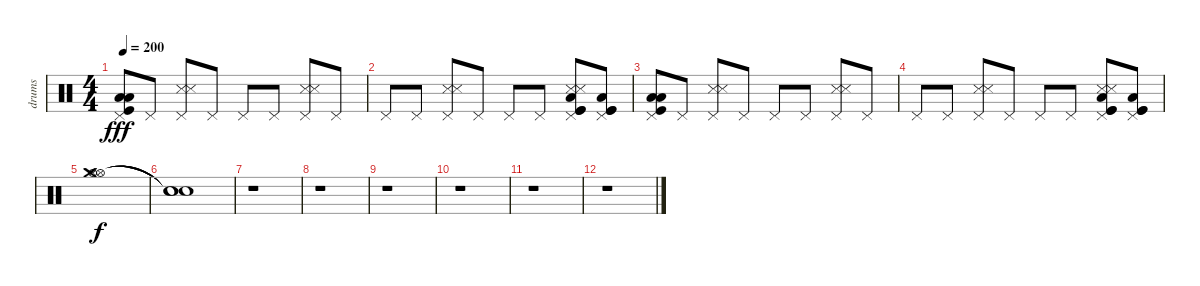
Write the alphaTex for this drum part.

\track ("drums" "drums") {instrument percussion}
\staff {score}
\articulation defaults
\ts (4 4)
\tempo 200
\clef neutral
\ks c
("Pedal Hi-Hat (hit)" "Low Floor Tom (hit)" "Low Floor Tom (hit)" "Kick (hit)").8{dy fff} "Pedal Hi-Hat (hit)".8 ("Pedal Hi-Hat (hit)" "Snare (side stick) 3" "Snare (side stick) 3").8 "Pedal Hi-Hat (hit)".8 "Pedal Hi-Hat (hit)".8 "Pedal Hi-Hat (hit)".8 ("Pedal Hi-Hat (hit)" "Snare (side stick) 3" "Snare (side stick) 3").8 "Pedal Hi-Hat (hit)".8 |
"Pedal Hi-Hat (hit)".8 "Pedal Hi-Hat (hit)".8 ("Pedal Hi-Hat (hit)" "Snare (side stick) 3" "Snare (side stick) 3").8 "Pedal Hi-Hat (hit)".8 "Pedal Hi-Hat (hit)".8 "Pedal Hi-Hat (hit)".8 ("Pedal Hi-Hat (hit)" "Snare (side stick) 3" "Snare (side stick) 3" "Kick (hit)" "Kick (hit)" "Low Floor Tom (hit)").8 ("Pedal Hi-Hat (hit)" "Kick (hit)" "Kick (hit)" "Low Floor Tom (hit)").8 |
("Pedal Hi-Hat (hit)" "Low Floor Tom (hit)" "Low Floor Tom (hit)" "Kick (hit)").8 "Pedal Hi-Hat (hit)".8 ("Pedal Hi-Hat (hit)" "Snare (side stick) 3" "Snare (side stick) 3").8 "Pedal Hi-Hat (hit)".8 "Pedal Hi-Hat (hit)".8 "Pedal Hi-Hat (hit)".8 ("Pedal Hi-Hat (hit)" "Snare (side stick) 3" "Snare (side stick) 3").8 "Pedal Hi-Hat (hit)".8 |
"Pedal Hi-Hat (hit)".8 "Pedal Hi-Hat (hit)".8 ("Pedal Hi-Hat (hit)" "Snare (side stick) 3" "Snare (side stick) 3").8 "Pedal Hi-Hat (hit)".8 "Pedal Hi-Hat (hit)".8 "Pedal Hi-Hat (hit)".8 ("Pedal Hi-Hat (hit)" "Snare (side stick) 3" "Snare (side stick) 3" "Kick (hit)" "Kick (hit)" "Low Floor Tom (hit)").8 ("Pedal Hi-Hat (hit)" "Kick (hit)" "Kick (hit)" "Low Floor Tom (hit)").8 |
("Hi-Hat (open)" "Crash medium (hit)" "Hi-Hat (open)").1{dy f} |
("Snare (hit)"{t} "Snare (hit)"{t} "Snare (hit)"{t}).1 |
r.1 |
r.1 |
r.1 |
r.1 |
r.1 |
r.1
